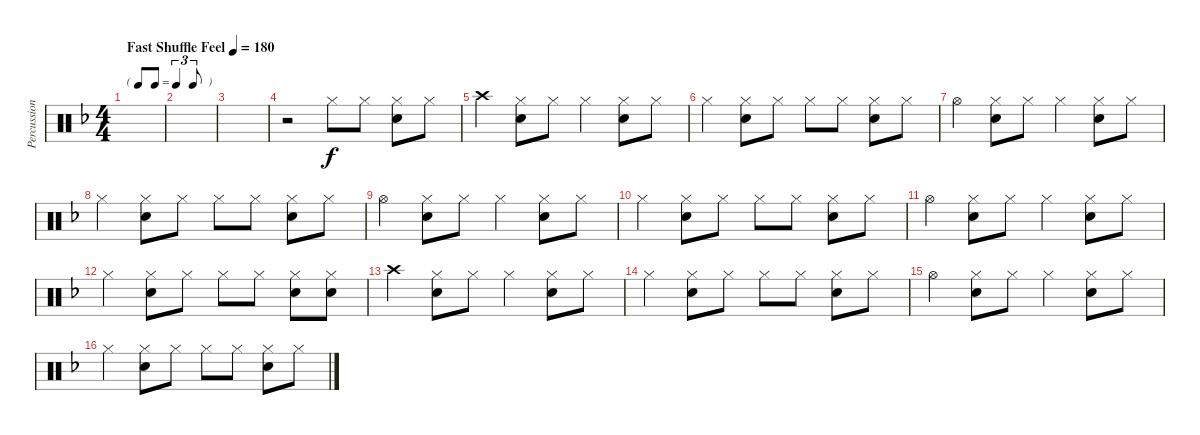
\track ("Percussion" "Percussion") {instrument percussion}
\staff {score}
\articulation defaults
\ts (4 4)
\tf triplet8th
\tempo (180 "Fast Shuffle Feel")
\clef neutral
\ks f
|
|
|
r.2 "Hi-Hat (closed)".8 "Hi-Hat (closed)".8 ("Hi-Hat (closed)" "Snare (hit) 2").8 "Hi-Hat (closed)".8 |
"Crash high (hit)".4 ("Hi-Hat (closed)" "Snare (hit) 2").8 "Hi-Hat (closed)".8 "Hi-Hat (closed)".4 ("Hi-Hat (closed)" "Snare (hit) 2").8 "Hi-Hat (closed)".8 |
"Hi-Hat (closed)".4 ("Hi-Hat (closed)" "Snare (hit) 2").8 "Hi-Hat (closed)".8 "Hi-Hat (closed)".8 "Hi-Hat (closed)".8 ("Hi-Hat (closed)" "Snare (hit) 2").8 "Hi-Hat (closed)".8 |
"Hi-Hat (open)".4 ("Hi-Hat (closed)" "Snare (hit) 2").8 "Hi-Hat (closed)".8 "Hi-Hat (closed)".4 ("Hi-Hat (closed)" "Snare (hit) 2").8 "Hi-Hat (closed)".8 |
"Hi-Hat (closed)".4 ("Hi-Hat (closed)" "Snare (hit) 2").8 "Hi-Hat (closed)".8 "Hi-Hat (closed)".8 "Hi-Hat (closed)".8 ("Hi-Hat (closed)" "Snare (hit) 2").8 "Hi-Hat (closed)".8 |
"Hi-Hat (open)".4 ("Hi-Hat (closed)" "Snare (hit) 2").8 "Hi-Hat (closed)".8 "Hi-Hat (closed)".4 ("Hi-Hat (closed)" "Snare (hit) 2").8 "Hi-Hat (closed)".8 |
"Hi-Hat (closed)".4 ("Hi-Hat (closed)" "Snare (hit) 2").8 "Hi-Hat (closed)".8 "Hi-Hat (closed)".8 "Hi-Hat (closed)".8 ("Hi-Hat (closed)" "Snare (hit) 2").8 "Hi-Hat (closed)".8 |
"Hi-Hat (open)".4 ("Hi-Hat (closed)" "Snare (hit) 2").8 "Hi-Hat (closed)".8 "Hi-Hat (closed)".4 ("Hi-Hat (closed)" "Snare (hit) 2").8 "Hi-Hat (closed)".8 |
"Hi-Hat (closed)".4 ("Hi-Hat (closed)" "Snare (hit) 2").8 "Hi-Hat (closed)".8 "Hi-Hat (closed)".8 "Hi-Hat (closed)".8 ("Hi-Hat (closed)" "Snare (hit) 2").8 ("Hi-Hat (closed)" "Snare (hit) 2").8 |
"Crash high (hit)".4 ("Hi-Hat (closed)" "Snare (hit) 2").8 "Hi-Hat (closed)".8 "Hi-Hat (closed)".4 ("Hi-Hat (closed)" "Snare (hit) 2").8 "Hi-Hat (closed)".8 |
"Hi-Hat (closed)".4 ("Hi-Hat (closed)" "Snare (hit) 2").8 "Hi-Hat (closed)".8 "Hi-Hat (closed)".8 "Hi-Hat (closed)".8 ("Hi-Hat (closed)" "Snare (hit) 2").8 "Hi-Hat (closed)".8 |
"Hi-Hat (open)".4 ("Hi-Hat (closed)" "Snare (hit) 2").8 "Hi-Hat (closed)".8 "Hi-Hat (closed)".4 ("Hi-Hat (closed)" "Snare (hit) 2").8 "Hi-Hat (closed)".8 |
"Hi-Hat (closed)".4 ("Hi-Hat (closed)" "Snare (hit) 2").8 "Hi-Hat (closed)".8 "Hi-Hat (closed)".8 "Hi-Hat (closed)".8 ("Hi-Hat (closed)" "Snare (hit) 2").8 "Hi-Hat (closed)".8
